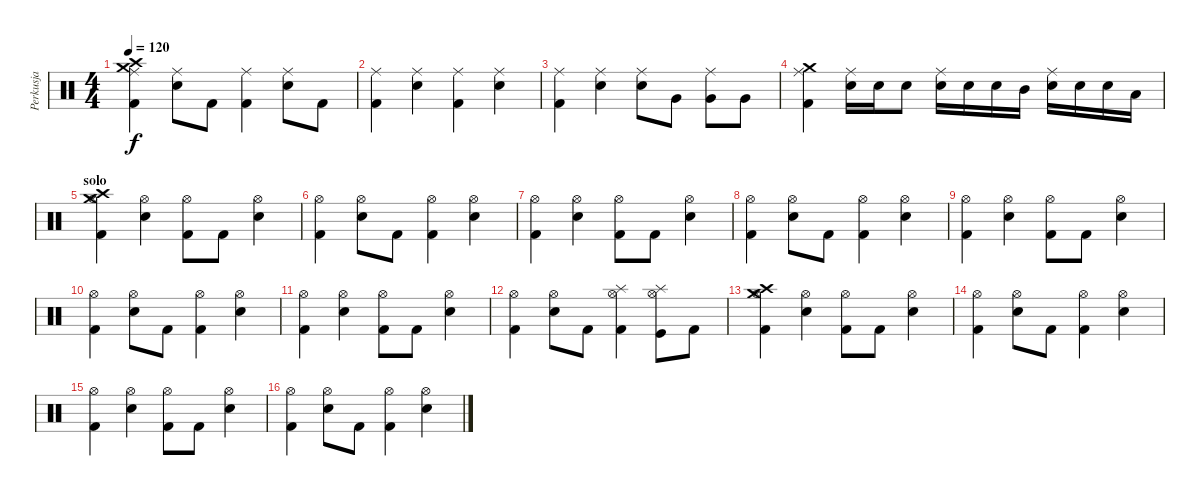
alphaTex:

\track ("Perkusja" "Perkusja") {instrument percussion}
\staff {score}
\articulation defaults
\ts (4 4)
\tempo 120
\clef neutral
\ks c
("Crash high (hit)" "Crash medium (hit)" "Kick (hit) 2" "Ride (middle)").4{dy f} ("Snare (hit) 2" "Ride (middle)").8 "Kick (hit) 2".8 ("Kick (hit) 2" "Ride (middle)").4 ("Snare (hit) 2" "Ride (middle)").8 "Kick (hit) 2".8 |
("Kick (hit) 2" "Ride (middle)").4 ("Snare (hit) 2" "Ride (middle)").4 ("Kick (hit) 2" "Ride (middle)").4 ("Snare (hit) 2" "Ride (middle)").4 |
("Kick (hit) 2" "Ride (middle)").4 ("Snare (hit) 2" "Ride (middle)").4 ("Electric Snare (hit)" "Ride (middle)").8 "Very Low Tom (hit)".8 ("Very Low Tom (hit)" "Ride (middle)").8 "Very Low Tom (hit)".8 |
("Crash medium (hit)" "Kick (hit) 2" "Ride (middle)").4 ("Snare (hit) 2" "Ride (middle)").16 "Snare (hit) 2".16 "Electric Snare (hit)".8 ("Snare (hit) 2" "Ride (middle)").16 "Electric Snare (hit)".16 "Electric Snare (hit)".16 "Mid Tom (hit)".16 ("Electric Snare (hit)" "Ride (middle)").16 "Snare (hit) 2".16 "Snare (hit) 2".16 "Low Tom (hit)".16 |
\section ("" "solo")
("Crash high (hit)" "Crash medium (hit)" "Kick (hit) 2" "Hi-Hat (open)").4 ("Snare (hit) 2" "Hi-Hat (open)").4 ("Kick (hit) 2" "Hi-Hat (open)").8 "Kick (hit) 2".8 ("Snare (hit) 2" "Hi-Hat (open)").4 |
("Kick (hit) 2" "Hi-Hat (open)").4 ("Snare (hit) 2" "Hi-Hat (open)").8 "Kick (hit) 2".8 ("Kick (hit) 2" "Hi-Hat (open)").4 ("Snare (hit) 2" "Hi-Hat (open)").4 |
("Kick (hit) 2" "Hi-Hat (open)").4 ("Snare (hit) 2" "Hi-Hat (open)").4 ("Kick (hit) 2" "Hi-Hat (open)").8 "Kick (hit) 2".8 ("Snare (hit) 2" "Hi-Hat (open)").4 |
("Kick (hit) 2" "Hi-Hat (open)").4 ("Snare (hit) 2" "Hi-Hat (open)").8 "Kick (hit) 2".8 ("Kick (hit) 2" "Hi-Hat (open)").4 ("Snare (hit) 2" "Hi-Hat (open)").4 |
("Kick (hit) 2" "Hi-Hat (open)").4 ("Snare (hit) 2" "Hi-Hat (open)").4 ("Kick (hit) 2" "Hi-Hat (open)").8 "Kick (hit) 2".8 ("Snare (hit) 2" "Hi-Hat (open)").4 |
("Kick (hit) 2" "Hi-Hat (open)").4 ("Snare (hit) 2" "Hi-Hat (open)").8 "Kick (hit) 2".8 ("Kick (hit) 2" "Hi-Hat (open)").4 ("Snare (hit) 2" "Hi-Hat (open)").4 |
("Kick (hit) 2" "Hi-Hat (open)").4 ("Snare (hit) 2" "Hi-Hat (open)").4 ("Kick (hit) 2" "Hi-Hat (open)").8 "Kick (hit) 2".8 ("Snare (hit) 2" "Hi-Hat (open)").4 |
("Kick (hit) 2" "Hi-Hat (open)").4 ("Snare (hit) 2" "Hi-Hat (open)").8 "Kick (hit) 2".8 ("Splash (hit)" "Kick (hit) 2" "Hi-Hat (open)").4 ("Splash (hit)" "Kick (hit)" "Hi-Hat (open)").8 "Kick (hit) 2".8 |
("Crash high (hit)" "Crash medium (hit)" "Kick (hit) 2" "Hi-Hat (open)").4 ("Snare (hit) 2" "Hi-Hat (open)").4 ("Kick (hit) 2" "Hi-Hat (open)").8 "Kick (hit) 2".8 ("Snare (hit) 2" "Hi-Hat (open)").4 |
("Kick (hit) 2" "Hi-Hat (open)").4 ("Snare (hit) 2" "Hi-Hat (open)").8 "Kick (hit) 2".8 ("Kick (hit) 2" "Hi-Hat (open)").4 ("Snare (hit) 2" "Hi-Hat (open)").4 |
("Kick (hit) 2" "Hi-Hat (open)").4 ("Snare (hit) 2" "Hi-Hat (open)").4 ("Kick (hit) 2" "Hi-Hat (open)").8 "Kick (hit) 2".8 ("Snare (hit) 2" "Hi-Hat (open)").4 |
("Kick (hit) 2" "Hi-Hat (open)").4 ("Snare (hit) 2" "Hi-Hat (open)").8 "Kick (hit) 2".8 ("Kick (hit) 2" "Hi-Hat (open)").4 ("Snare (hit) 2" "Hi-Hat (open)").4
